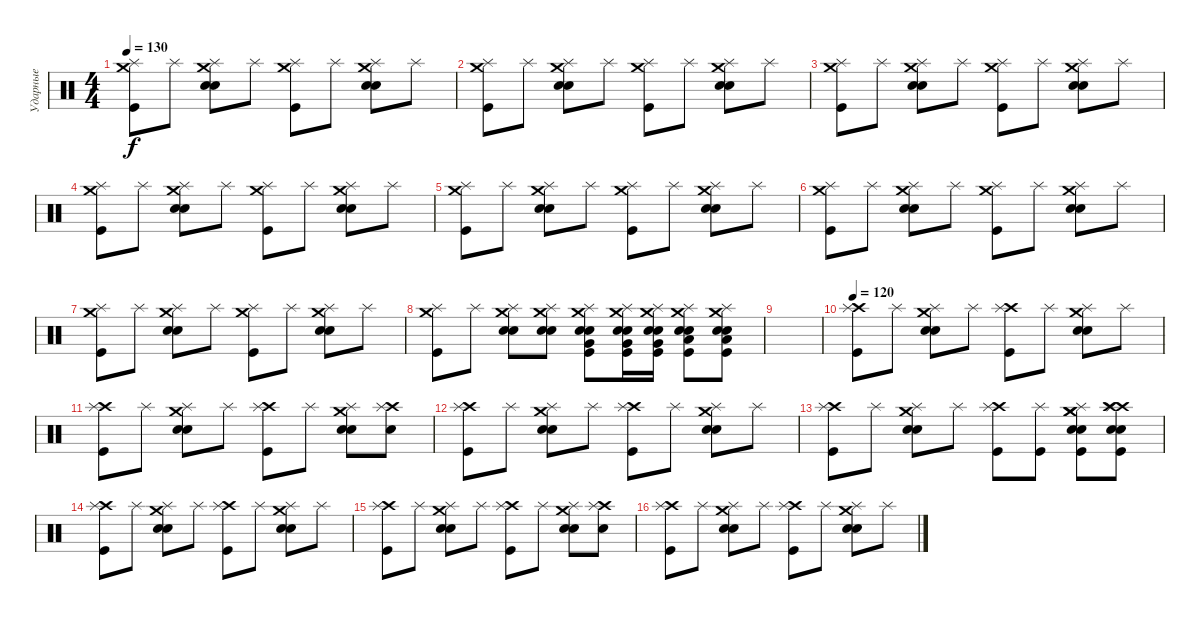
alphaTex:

\track ("Ударные" "Ударные") {instrument percussion}
\staff {score}
\articulation defaults
\ts (4 4)
\tempo 130
\clef neutral
\ks c
("Splash (hit)" "Crash medium (hit)" "Kick (hit)").8{dy f} "Splash (hit)".8 ("Splash (hit)" "Crash medium (hit)" "Electric Snare (hit)" "Electric Snare (hit)").8 "Splash (hit)".8 ("Splash (hit)" "Crash medium (hit)" "Kick (hit)").8 "Splash (hit)".8 ("Splash (hit)" "Crash medium (hit)" "Electric Snare (hit)" "Electric Snare (hit)").8 "Splash (hit)".8 |
("Splash (hit)" "Crash medium (hit)" "Kick (hit)").8 "Splash (hit)".8 ("Splash (hit)" "Crash medium (hit)" "Electric Snare (hit)" "Electric Snare (hit)").8 "Splash (hit)".8 ("Splash (hit)" "Crash medium (hit)" "Kick (hit)").8 "Splash (hit)".8 ("Splash (hit)" "Crash medium (hit)" "Electric Snare (hit)" "Electric Snare (hit)").8 "Splash (hit)".8 |
("Splash (hit)" "Crash medium (hit)" "Kick (hit)").8 "Splash (hit)".8 ("Splash (hit)" "Crash medium (hit)" "Electric Snare (hit)" "Electric Snare (hit)").8 "Splash (hit)".8 ("Splash (hit)" "Crash medium (hit)" "Kick (hit)").8 "Splash (hit)".8 ("Splash (hit)" "Crash medium (hit)" "Electric Snare (hit)" "Electric Snare (hit)").8 "Splash (hit)".8 |
("Splash (hit)" "Crash medium (hit)" "Kick (hit)").8 "Splash (hit)".8 ("Splash (hit)" "Crash medium (hit)" "Electric Snare (hit)" "Electric Snare (hit)").8 "Splash (hit)".8 ("Splash (hit)" "Crash medium (hit)" "Kick (hit)").8 "Splash (hit)".8 ("Splash (hit)" "Crash medium (hit)" "Electric Snare (hit)" "Electric Snare (hit)").8 "Splash (hit)".8 |
("Splash (hit)" "Crash medium (hit)" "Kick (hit)").8 "Splash (hit)".8 ("Splash (hit)" "Crash medium (hit)" "Electric Snare (hit)" "Electric Snare (hit)").8 "Splash (hit)".8 ("Splash (hit)" "Crash medium (hit)" "Kick (hit)").8 "Splash (hit)".8 ("Splash (hit)" "Crash medium (hit)" "Electric Snare (hit)" "Electric Snare (hit)").8 "Splash (hit)".8 |
("Splash (hit)" "Crash medium (hit)" "Kick (hit)").8 "Splash (hit)".8 ("Splash (hit)" "Crash medium (hit)" "Electric Snare (hit)" "Electric Snare (hit)").8 "Splash (hit)".8 ("Splash (hit)" "Crash medium (hit)" "Kick (hit)").8 "Splash (hit)".8 ("Splash (hit)" "Crash medium (hit)" "Electric Snare (hit)" "Electric Snare (hit)").8 "Splash (hit)".8 |
("Splash (hit)" "Crash medium (hit)" "Kick (hit)").8 "Splash (hit)".8 ("Splash (hit)" "Crash medium (hit)" "Electric Snare (hit)" "Electric Snare (hit)").8 "Splash (hit)".8 ("Splash (hit)" "Crash medium (hit)" "Kick (hit)").8 "Splash (hit)".8 ("Splash (hit)" "Crash medium (hit)" "Electric Snare (hit)" "Electric Snare (hit)").8 "Splash (hit)".8 |
("Splash (hit)" "Crash medium (hit)" "Kick (hit)").8 "Splash (hit)".8 ("Splash (hit)" "Crash medium (hit)" "Electric Snare (hit)" "Electric Snare (hit)").8 ("Splash (hit)" "Crash medium (hit)" "Electric Snare (hit)" "Electric Snare (hit)").8 ("Splash (hit)" "Crash medium (hit)" "Very Low Tom (hit)" "Electric Snare (hit)" "Electric Snare (hit)" "Kick (hit)").8 ("Splash (hit)" "Crash medium (hit)" "Very Low Tom (hit)" "Electric Snare (hit)" "Electric Snare (hit)" "Kick (hit)").16 ("Splash (hit)" "Crash medium (hit)" "Very Low Tom (hit)" "Electric Snare (hit)" "Electric Snare (hit)" "Kick (hit)").16 ("Splash (hit)" "Crash medium (hit)" "Low Floor Tom (hit)" "Electric Snare (hit)" "Electric Snare (hit)" "Kick (hit)").8 ("Splash (hit)" "Crash medium (hit)" "Low Floor Tom (hit)" "Electric Snare (hit)" "Electric Snare (hit)" "Kick (hit)").8 |
|
\tempo 120
("Crash high (hit)" "Splash (hit)" "Kick (hit)").8 "Splash (hit)".8 ("Crash medium (hit)" "Splash (hit)" "Electric Snare (hit)" "Electric Snare (hit)").8 "Splash (hit)".8 ("Crash high (hit)" "Splash (hit)" "Kick (hit)").8 "Splash (hit)".8 ("Crash medium (hit)" "Splash (hit)" "Electric Snare (hit)" "Electric Snare (hit)").8 "Splash (hit)".8 |
("Crash high (hit)" "Splash (hit)" "Kick (hit)").8 "Splash (hit)".8 ("Crash medium (hit)" "Splash (hit)" "Electric Snare (hit)" "Electric Snare (hit)").8 "Splash (hit)".8 ("Crash high (hit)" "Splash (hit)" "Kick (hit)").8 "Splash (hit)".8 ("Crash medium (hit)" "Splash (hit)" "Electric Snare (hit)" "Electric Snare (hit)").8 ("Crash high (hit)" "Splash (hit)" "Electric Snare (hit)").8 |
("Crash high (hit)" "Splash (hit)" "Kick (hit)").8 "Splash (hit)".8 ("Crash medium (hit)" "Splash (hit)" "Electric Snare (hit)" "Electric Snare (hit)").8 "Splash (hit)".8 ("Crash high (hit)" "Splash (hit)" "Kick (hit)").8 "Splash (hit)".8 ("Crash medium (hit)" "Splash (hit)" "Electric Snare (hit)" "Electric Snare (hit)").8 "Splash (hit)".8 |
("Crash high (hit)" "Splash (hit)" "Kick (hit)").8 "Splash (hit)".8 ("Crash medium (hit)" "Splash (hit)" "Electric Snare (hit)" "Electric Snare (hit)").8 "Splash (hit)".8 ("Crash high (hit)" "Splash (hit)" "Kick (hit)").8 ("Splash (hit)" "Kick (hit)").8 ("Crash medium (hit)" "Splash (hit)" "Crash medium (hit)" "Electric Snare (hit)" "Electric Snare (hit)" "Kick (hit)").8 ("Crash high (hit)" "Splash (hit)" "Crash high (hit)" "Electric Snare (hit)" "Electric Snare (hit)" "Kick (hit)").8 |
("Crash high (hit)" "Splash (hit)" "Kick (hit)").8 "Splash (hit)".8 ("Crash medium (hit)" "Splash (hit)" "Electric Snare (hit)" "Electric Snare (hit)").8 "Splash (hit)".8 ("Crash high (hit)" "Splash (hit)" "Kick (hit)").8 "Splash (hit)".8 ("Crash medium (hit)" "Splash (hit)" "Electric Snare (hit)" "Electric Snare (hit)").8 "Splash (hit)".8 |
("Crash high (hit)" "Splash (hit)" "Kick (hit)").8 "Splash (hit)".8 ("Crash medium (hit)" "Splash (hit)" "Electric Snare (hit)" "Electric Snare (hit)").8 "Splash (hit)".8 ("Crash high (hit)" "Splash (hit)" "Kick (hit)").8 "Splash (hit)".8 ("Crash medium (hit)" "Splash (hit)" "Electric Snare (hit)" "Electric Snare (hit)").8 ("Crash high (hit)" "Splash (hit)" "Electric Snare (hit)").8 |
("Crash high (hit)" "Splash (hit)" "Kick (hit)").8 "Splash (hit)".8 ("Crash medium (hit)" "Splash (hit)" "Electric Snare (hit)" "Electric Snare (hit)").8 "Splash (hit)".8 ("Crash high (hit)" "Splash (hit)" "Kick (hit)").8 "Splash (hit)".8 ("Crash medium (hit)" "Splash (hit)" "Electric Snare (hit)" "Electric Snare (hit)").8 "Splash (hit)".8
